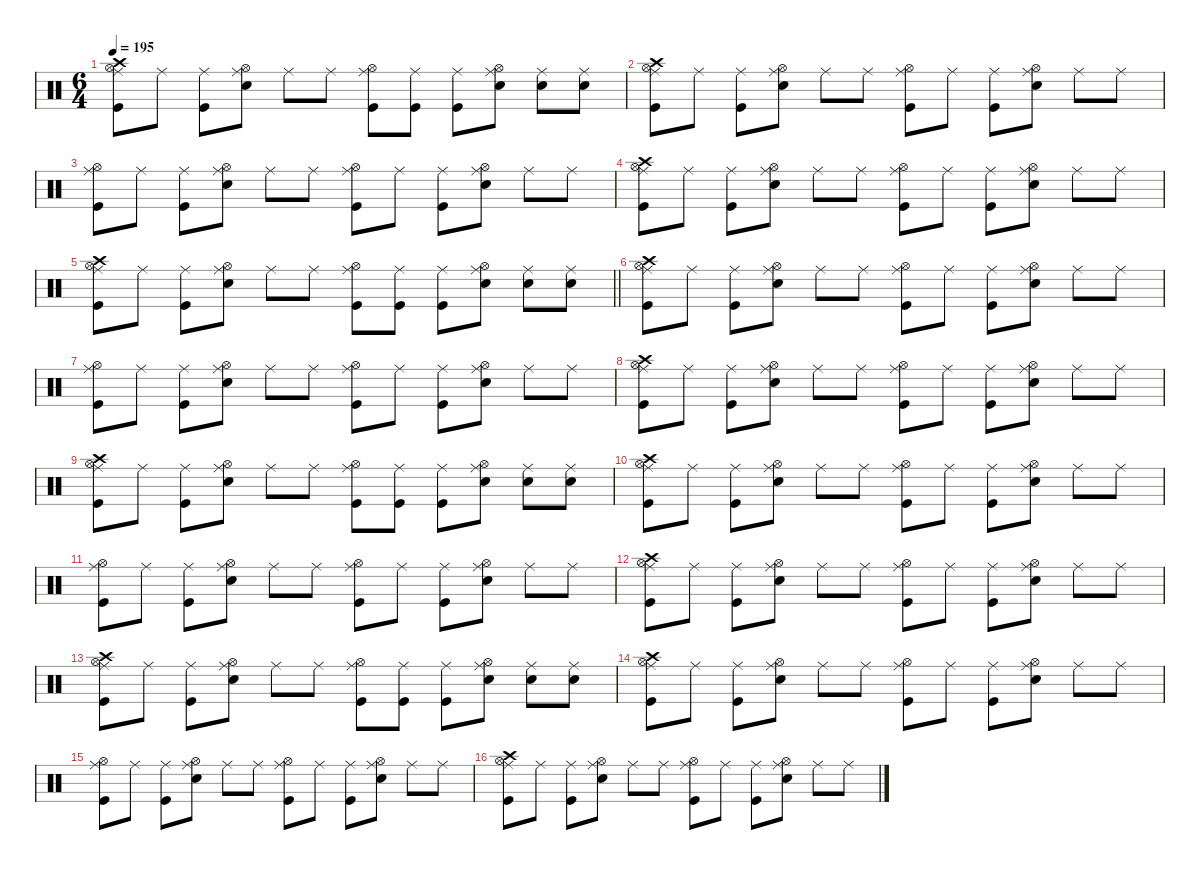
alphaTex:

\defaultSystemsLayout 4
\hideDynamics
\bracketExtendMode nobrackets
\singleTrackTrackNamePolicy hidden
\multiTrackTrackNamePolicy hidden
\firstSystemTrackNameMode fullname
\firstSystemTrackNameOrientation horizontal
\otherSystemsTrackNameOrientation horizontal
\track ("Percussion" "drm.") {defaultSystemsLayout 4 instrument percussion}
\staff {score}
\articulation defaults
\ts (6 4)
\tempo 195
\clef neutral
\ks c
("Crash high (hit)" "Ride (middle)" "Hi-Hat (open)" "Kick (hit)").8{dy f beam Down} "Ride (middle)".8{beam Down} ("Ride (middle)" "Kick (hit)").8{beam Down} ("Ride (middle)" "Snare (hit) 2" "Hi-Hat (open)").8{beam Down} "Ride (middle)".8{beam Down} "Ride (middle)".8{beam Down} ("Ride (middle)" "Hi-Hat (open)" "Kick (hit)").8{beam Down} ("Ride (middle)" "Kick (hit)").8{beam Down} ("Ride (middle)" "Kick (hit)").8{beam Down} ("Ride (middle)" "Snare (hit) 2" "Hi-Hat (open)").8{beam Down} ("Ride (middle)" "Snare (hit) 2").8{beam Down} ("Ride (middle)" "Snare (hit) 2").8{beam Down} |
("Crash high (hit)" "Ride (middle)" "Hi-Hat (open)" "Kick (hit)").8{beam Down} "Ride (middle)".8{beam Down} ("Ride (middle)" "Kick (hit)").8{beam Down} ("Ride (middle)" "Snare (hit) 2" "Hi-Hat (open)").8{beam Down} "Ride (middle)".8{beam Down} "Ride (middle)".8{beam Down} ("Ride (middle)" "Hi-Hat (open)" "Kick (hit)").8{beam Down} "Ride (middle)".8{beam Down} ("Ride (middle)" "Kick (hit)").8{beam Down} ("Ride (middle)" "Snare (hit) 2" "Hi-Hat (open)").8{beam Down} "Ride (middle)".8{beam Down} "Ride (middle)".8{beam Down} |
("Ride (middle)" "Hi-Hat (open)" "Kick (hit)").8{beam Down} "Ride (middle)".8{beam Down} ("Ride (middle)" "Kick (hit)").8{beam Down} ("Ride (middle)" "Snare (hit) 2" "Hi-Hat (open)").8{beam Down} "Ride (middle)".8{beam Down} "Ride (middle)".8{beam Down} ("Ride (middle)" "Hi-Hat (open)" "Kick (hit)").8{beam Down} "Ride (middle)".8{beam Down} ("Ride (middle)" "Kick (hit)").8{beam Down} ("Ride (middle)" "Snare (hit) 2" "Hi-Hat (open)").8{beam Down} "Ride (middle)".8{beam Down} "Ride (middle)".8{beam Down} |
("Crash high (hit)" "Ride (middle)" "Hi-Hat (open)" "Kick (hit)").8{beam Down} "Ride (middle)".8{beam Down} ("Ride (middle)" "Kick (hit)").8{beam Down} ("Ride (middle)" "Snare (hit) 2" "Hi-Hat (open)").8{beam Down} "Ride (middle)".8{beam Down} "Ride (middle)".8{beam Down} ("Ride (middle)" "Hi-Hat (open)" "Kick (hit)").8{beam Down} "Ride (middle)".8{beam Down} ("Ride (middle)" "Kick (hit)").8{beam Down} ("Ride (middle)" "Snare (hit) 2" "Hi-Hat (open)").8{beam Down} "Ride (middle)".8{beam Down} "Ride (middle)".8{beam Down} |
\barLineRight lightlight
("Crash high (hit)" "Ride (middle)" "Hi-Hat (open)" "Kick (hit)").8{beam Down} "Ride (middle)".8{beam Down} ("Ride (middle)" "Kick (hit)").8{beam Down} ("Ride (middle)" "Snare (hit) 2" "Hi-Hat (open)").8{beam Down} "Ride (middle)".8{beam Down} "Ride (middle)".8{beam Down} ("Ride (middle)" "Hi-Hat (open)" "Kick (hit)").8{beam Down} ("Ride (middle)" "Kick (hit)").8{beam Down} ("Ride (middle)" "Kick (hit)").8{beam Down} ("Ride (middle)" "Snare (hit) 2" "Hi-Hat (open)").8{beam Down} ("Ride (middle)" "Snare (hit) 2").8{beam Down} ("Ride (middle)" "Snare (hit) 2").8{beam Down} |
("Crash high (hit)" "Ride (middle)" "Hi-Hat (open)" "Kick (hit)").8{beam Down} "Ride (middle)".8{beam Down} ("Ride (middle)" "Kick (hit)").8{beam Down} ("Ride (middle)" "Snare (hit) 2" "Hi-Hat (open)").8{beam Down} "Ride (middle)".8{beam Down} "Ride (middle)".8{beam Down} ("Ride (middle)" "Hi-Hat (open)" "Kick (hit)").8{beam Down} "Ride (middle)".8{beam Down} ("Ride (middle)" "Kick (hit)").8{beam Down} ("Ride (middle)" "Snare (hit) 2" "Hi-Hat (open)").8{beam Down} "Ride (middle)".8{beam Down} "Ride (middle)".8{beam Down} |
("Ride (middle)" "Hi-Hat (open)" "Kick (hit)").8{beam Down} "Ride (middle)".8{beam Down} ("Ride (middle)" "Kick (hit)").8{beam Down} ("Ride (middle)" "Snare (hit) 2" "Hi-Hat (open)").8{beam Down} "Ride (middle)".8{beam Down} "Ride (middle)".8{beam Down} ("Ride (middle)" "Hi-Hat (open)" "Kick (hit)").8{beam Down} "Ride (middle)".8{beam Down} ("Ride (middle)" "Kick (hit)").8{beam Down} ("Ride (middle)" "Snare (hit) 2" "Hi-Hat (open)").8{beam Down} "Ride (middle)".8{beam Down} "Ride (middle)".8{beam Down} |
("Crash high (hit)" "Ride (middle)" "Hi-Hat (open)" "Kick (hit)").8{beam Down} "Ride (middle)".8{beam Down} ("Ride (middle)" "Kick (hit)").8{beam Down} ("Ride (middle)" "Snare (hit) 2" "Hi-Hat (open)").8{beam Down} "Ride (middle)".8{beam Down} "Ride (middle)".8{beam Down} ("Ride (middle)" "Hi-Hat (open)" "Kick (hit)").8{beam Down} "Ride (middle)".8{beam Down} ("Ride (middle)" "Kick (hit)").8{beam Down} ("Ride (middle)" "Snare (hit) 2" "Hi-Hat (open)").8{beam Down} "Ride (middle)".8{beam Down} "Ride (middle)".8{beam Down} |
("Crash high (hit)" "Ride (middle)" "Hi-Hat (open)" "Kick (hit)").8{beam Down} "Ride (middle)".8{beam Down} ("Ride (middle)" "Kick (hit)").8{beam Down} ("Ride (middle)" "Snare (hit) 2" "Hi-Hat (open)").8{beam Down} "Ride (middle)".8{beam Down} "Ride (middle)".8{beam Down} ("Ride (middle)" "Hi-Hat (open)" "Kick (hit)").8{beam Down} ("Ride (middle)" "Kick (hit)").8{beam Down} ("Ride (middle)" "Kick (hit)").8{beam Down} ("Ride (middle)" "Snare (hit) 2" "Hi-Hat (open)").8{beam Down} ("Ride (middle)" "Snare (hit) 2").8{beam Down} ("Ride (middle)" "Snare (hit) 2").8{beam Down} |
("Crash high (hit)" "Ride (middle)" "Hi-Hat (open)" "Kick (hit)").8{beam Down} "Ride (middle)".8{beam Down} ("Ride (middle)" "Kick (hit)").8{beam Down} ("Ride (middle)" "Snare (hit) 2" "Hi-Hat (open)").8{beam Down} "Ride (middle)".8{beam Down} "Ride (middle)".8{beam Down} ("Ride (middle)" "Hi-Hat (open)" "Kick (hit)").8{beam Down} "Ride (middle)".8{beam Down} ("Ride (middle)" "Kick (hit)").8{beam Down} ("Ride (middle)" "Snare (hit) 2" "Hi-Hat (open)").8{beam Down} "Ride (middle)".8{beam Down} "Ride (middle)".8{beam Down} |
("Ride (middle)" "Hi-Hat (open)" "Kick (hit)").8{beam Down} "Ride (middle)".8{beam Down} ("Ride (middle)" "Kick (hit)").8{beam Down} ("Ride (middle)" "Snare (hit) 2" "Hi-Hat (open)").8{beam Down} "Ride (middle)".8{beam Down} "Ride (middle)".8{beam Down} ("Ride (middle)" "Hi-Hat (open)" "Kick (hit)").8{beam Down} "Ride (middle)".8{beam Down} ("Ride (middle)" "Kick (hit)").8{beam Down} ("Ride (middle)" "Snare (hit) 2" "Hi-Hat (open)").8{beam Down} "Ride (middle)".8{beam Down} "Ride (middle)".8{beam Down} |
("Crash high (hit)" "Ride (middle)" "Hi-Hat (open)" "Kick (hit)").8{beam Down} "Ride (middle)".8{beam Down} ("Ride (middle)" "Kick (hit)").8{beam Down} ("Ride (middle)" "Snare (hit) 2" "Hi-Hat (open)").8{beam Down} "Ride (middle)".8{beam Down} "Ride (middle)".8{beam Down} ("Ride (middle)" "Hi-Hat (open)" "Kick (hit)").8{beam Down} "Ride (middle)".8{beam Down} ("Ride (middle)" "Kick (hit)").8{beam Down} ("Ride (middle)" "Snare (hit) 2" "Hi-Hat (open)").8{beam Down} "Ride (middle)".8{beam Down} "Ride (middle)".8{beam Down} |
("Crash high (hit)" "Ride (middle)" "Hi-Hat (open)" "Kick (hit)").8{beam Down} "Ride (middle)".8{beam Down} ("Ride (middle)" "Kick (hit)").8{beam Down} ("Ride (middle)" "Snare (hit) 2" "Hi-Hat (open)").8{beam Down} "Ride (middle)".8{beam Down} "Ride (middle)".8{beam Down} ("Ride (middle)" "Hi-Hat (open)" "Kick (hit)").8{beam Down} ("Ride (middle)" "Kick (hit)").8{beam Down} ("Ride (middle)" "Kick (hit)").8{beam Down} ("Ride (middle)" "Snare (hit) 2" "Hi-Hat (open)").8{beam Down} ("Ride (middle)" "Snare (hit) 2").8{beam Down} ("Ride (middle)" "Snare (hit) 2").8{beam Down} |
("Crash high (hit)" "Ride (middle)" "Hi-Hat (open)" "Kick (hit)").8{beam Down} "Ride (middle)".8{beam Down} ("Ride (middle)" "Kick (hit)").8{beam Down} ("Ride (middle)" "Snare (hit) 2" "Hi-Hat (open)").8{beam Down} "Ride (middle)".8{beam Down} "Ride (middle)".8{beam Down} ("Ride (middle)" "Hi-Hat (open)" "Kick (hit)").8{beam Down} "Ride (middle)".8{beam Down} ("Ride (middle)" "Kick (hit)").8{beam Down} ("Ride (middle)" "Snare (hit) 2" "Hi-Hat (open)").8{beam Down} "Ride (middle)".8{beam Down} "Ride (middle)".8{beam Down} |
("Ride (middle)" "Hi-Hat (open)" "Kick (hit)").8{beam Down} "Ride (middle)".8{beam Down} ("Ride (middle)" "Kick (hit)").8{beam Down} ("Ride (middle)" "Snare (hit) 2" "Hi-Hat (open)").8{beam Down} "Ride (middle)".8{beam Down} "Ride (middle)".8{beam Down} ("Ride (middle)" "Hi-Hat (open)" "Kick (hit)").8{beam Down} "Ride (middle)".8{beam Down} ("Ride (middle)" "Kick (hit)").8{beam Down} ("Ride (middle)" "Snare (hit) 2" "Hi-Hat (open)").8{beam Down} "Ride (middle)".8{beam Down} "Ride (middle)".8{beam Down} |
("Crash high (hit)" "Ride (middle)" "Hi-Hat (open)" "Kick (hit)").8{beam Down} "Ride (middle)".8{beam Down} ("Ride (middle)" "Kick (hit)").8{beam Down} ("Ride (middle)" "Snare (hit) 2" "Hi-Hat (open)").8{beam Down} "Ride (middle)".8{beam Down} "Ride (middle)".8{beam Down} ("Ride (middle)" "Hi-Hat (open)" "Kick (hit)").8{beam Down} "Ride (middle)".8{beam Down} ("Ride (middle)" "Kick (hit)").8{beam Down} ("Ride (middle)" "Snare (hit) 2" "Hi-Hat (open)").8{beam Down} "Ride (middle)".8{beam Down} "Ride (middle)".8{beam Down}
